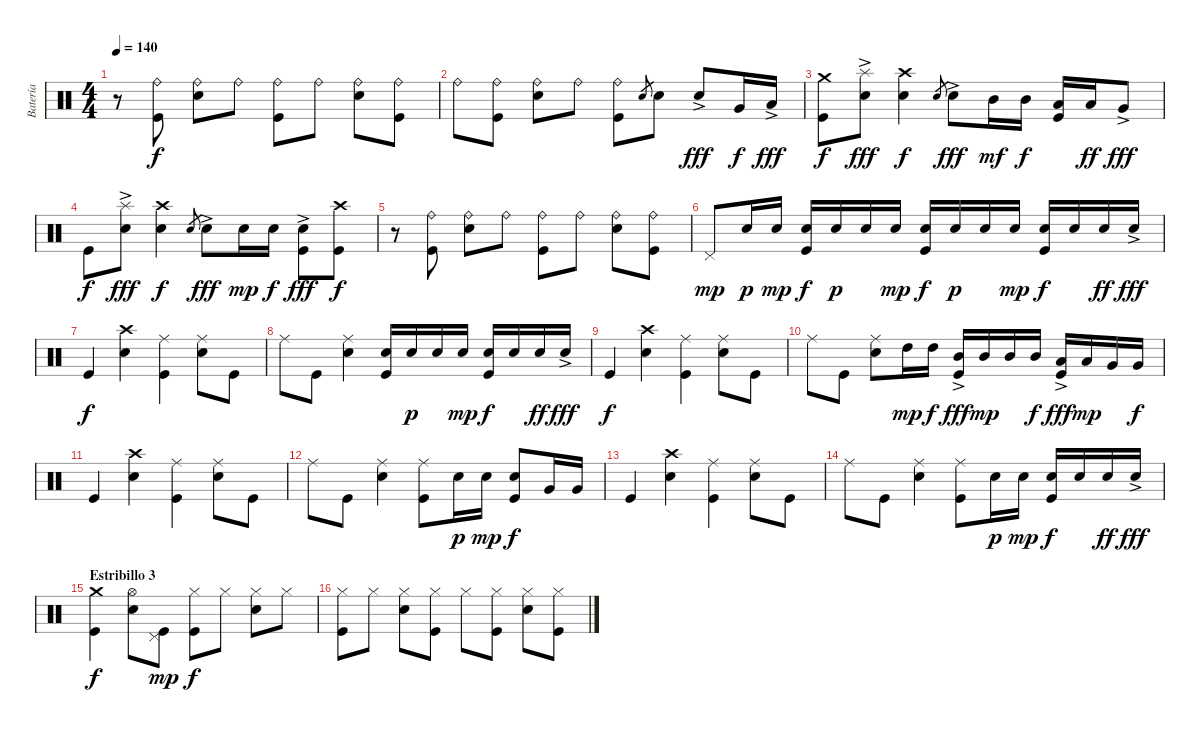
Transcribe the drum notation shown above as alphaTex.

\track ("Batería" "Batería") {instrument percussion}
\staff {score}
\articulation defaults
\ts (4 4)
\tempo 140
\clef neutral
\ks c
r.8{dy f} ("Kick (hit)" "Ride (bell)").8 ("Electric Snare (hit)" "Ride (bell)").8 "Ride (bell)".8 ("Kick (hit)" "Ride (bell)").8 "Ride (bell)".8 ("Electric Snare (hit)" "Ride (bell)").8 ("Kick (hit)" "Ride (bell)").8 |
"Ride (bell)".8 ("Kick (hit)" "Ride (bell)").8 ("Electric Snare (hit)" "Ride (bell)").8 "Ride (bell)".8 ("Kick (hit)" "Ride (bell)").8 "Electric Snare (hit)".8{gr} "Electric Snare (hit)".8 "Electric Snare (hit)"{ac}.8{dy fff} "Very Low Tom (hit)".16{dy f} "Low Floor Tom (hit)"{ac}.16{dy fff} |
("Kick (hit)" "Crash medium (hit)").8{dy f} ("Electric Snare (hit)" "Splash (hit)"{ac}).8{dy fff} ("Electric Snare (hit)" "Crash high (hit)").4{dy f} "Electric Snare (hit)".8{gr} "Electric Snare (hit)"{ac}.8{dy fff} "Mid Tom (hit)".16{dy mf} "Mid Tom (hit)".16{dy f} ("Kick (hit)" "Low Tom (hit)").16 "Low Tom (hit)".16{dy ff} "Very Low Tom (hit)"{ac}.8{dy fff} |
"Kick (hit)".8{dy f} ("Electric Snare (hit)" "Splash (hit)"{ac}).8{dy fff} ("Electric Snare (hit)" "Crash high (hit)").4{dy f} "Electric Snare (hit)".8{gr} "Electric Snare (hit)"{ac}.8{dy fff} "Electric Snare (hit)".16{dy mp} "Electric Snare (hit)".16{dy f} ("Kick (hit)" "Electric Snare (hit)"{ac}).8{dy fff} ("Kick (hit)" "Crash high (hit)").8{dy f} |
r.8 ("Kick (hit)" "Ride (bell)").8 ("Electric Snare (hit)" "Ride (bell)").8 "Ride (bell)".8 ("Kick (hit)" "Ride (bell)").8 "Ride (bell)".8 ("Electric Snare (hit)" "Ride (bell)").8 ("Kick (hit)" "Ride (bell)").8 |
"Pedal Hi-Hat (hit)".8{dy mp} "Electric Snare (hit)".16{dy p} "Electric Snare (hit)".16{dy mp} ("Kick (hit)" "Electric Snare (hit)").16{dy f} "Electric Snare (hit)".16{dy p} "Electric Snare (hit)".16 "Electric Snare (hit)".16{dy mp} ("Kick (hit)" "Electric Snare (hit)").16{dy f} "Electric Snare (hit)".16{dy p} "Electric Snare (hit)".16 "Electric Snare (hit)".16{dy mp} ("Kick (hit)" "Electric Snare (hit)").16{dy f} "Electric Snare (hit)".16 "Electric Snare (hit)".16{dy ff} "Electric Snare (hit)"{ac}.16{dy fff} |
"Kick (hit)".4{dy f} ("Electric Snare (hit)" "Crash high (hit)").4 ("Kick (hit)" "Ride (middle)").4 ("Electric Snare (hit)" "Ride (middle)").8 "Kick (hit)".8 |
"Ride (middle)".8 "Kick (hit)".8 ("Electric Snare (hit)" "Ride (middle)").4 ("Kick (hit)" "Electric Snare (hit)").16 "Electric Snare (hit)".16{dy p} "Electric Snare (hit)".16 "Electric Snare (hit)".16{dy mp} ("Kick (hit)" "Electric Snare (hit)").16{dy f} "Electric Snare (hit)".16 "Electric Snare (hit)".16{dy ff} "Electric Snare (hit)"{ac}.16{dy fff} |
"Kick (hit)".4{dy f} ("Electric Snare (hit)" "Crash high (hit)").4 ("Kick (hit)" "Ride (middle)").4 ("Electric Snare (hit)" "Ride (middle)").8 "Kick (hit)".8 |
"Ride (middle)".8 "Kick (hit)".8 ("Electric Snare (hit)" "Ride (middle)").8 "High Tom (hit)".16{dy mp} "High Tom (hit)".16{dy f} ("Kick (hit)" "Mid Tom (hit)"{ac}).16{dy fff} "Mid Tom (hit)".16{dy mp} "Mid Tom (hit)".16 "Mid Tom (hit)".16{dy f} ("Kick (hit)" "Low Tom (hit)"{ac}).16{dy fff} "Low Tom (hit)".16{dy mp} "Very Low Tom (hit)".16 "Very Low Tom (hit)".16{dy f} |
"Kick (hit)".4 ("Electric Snare (hit)" "Crash high (hit)").4 ("Kick (hit)" "Ride (middle)").4 ("Electric Snare (hit)" "Ride (middle)").8 "Kick (hit)".8 |
"Ride (middle)".8 "Kick (hit)".8 ("Electric Snare (hit)" "Ride (middle)").4 ("Kick (hit)" "Ride (middle)").8 "Electric Snare (hit)".16{dy p} "Electric Snare (hit)".16{dy mp} ("Kick (hit)" "Electric Snare (hit)").8{dy f} "Very Low Tom (hit)".16 "Very Low Tom (hit)".16 |
"Kick (hit)".4 ("Electric Snare (hit)" "Crash high (hit)").4 ("Kick (hit)" "Ride (middle)").4 ("Electric Snare (hit)" "Ride (middle)").8 "Kick (hit)".8 |
"Ride (middle)".8 "Kick (hit)".8 ("Electric Snare (hit)" "Ride (middle)").4 ("Kick (hit)" "Ride (middle)").8 "Electric Snare (hit)".16{dy p} "Electric Snare (hit)".16{dy mp} ("Kick (hit)" "Electric Snare (hit)").16{dy f} "Electric Snare (hit)".16 "Electric Snare (hit)".16{dy ff} "Electric Snare (hit)"{ac}.16{dy fff} |
\section ("" "Estribillo 3")
("Kick (hit)" "Crash medium (hit)").4{dy f} ("Electric Snare (hit)" "Hi-Hat (open)").8 ("Kick (hit)" "Pedal Hi-Hat (hit)").8{dy mp} ("Kick (hit)" "Hi-Hat (closed)").8{dy f} "Hi-Hat (closed)".8 ("Electric Snare (hit)" "Hi-Hat (closed)").8 "Hi-Hat (closed)".8 |
("Kick (hit)" "Hi-Hat (closed)").8 "Hi-Hat (closed)".8 ("Electric Snare (hit)" "Hi-Hat (closed)").8 ("Kick (hit)" "Hi-Hat (closed)").8 "Hi-Hat (closed)".8 ("Kick (hit)" "Hi-Hat (closed)").8 ("Electric Snare (hit)" "Hi-Hat (closed)").8 ("Kick (hit)" "Hi-Hat (closed)").8
